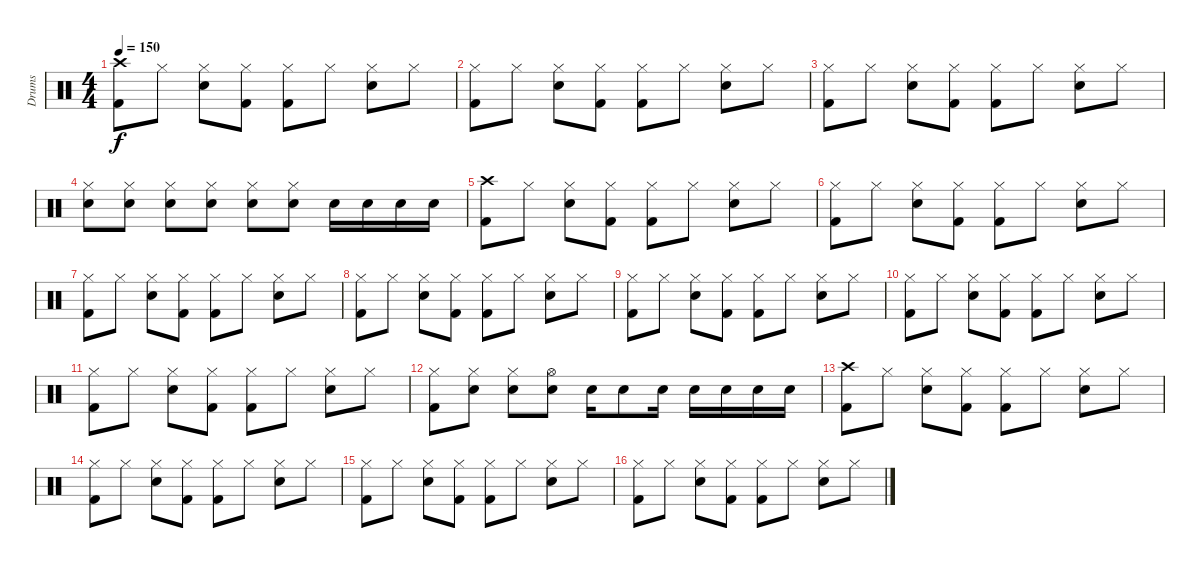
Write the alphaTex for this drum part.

\track ("Drums" "Drums") {instrument percussion}
\staff {score}
\articulation defaults
\ts (4 4)
\tempo 150
\clef neutral
\ks c
("Crash high (hit)" "Kick (hit) 2").8{dy f} "Hi-Hat (closed)".8 ("Hi-Hat (closed)" "Snare (hit) 2").8 ("Hi-Hat (closed)" "Kick (hit) 2").8 ("Hi-Hat (closed)" "Kick (hit) 2").8 "Hi-Hat (closed)".8 ("Hi-Hat (closed)" "Snare (hit) 2").8 "Hi-Hat (closed)".8 |
("Hi-Hat (closed)" "Kick (hit) 2").8 "Hi-Hat (closed)".8 ("Hi-Hat (closed)" "Snare (hit) 2").8 ("Hi-Hat (closed)" "Kick (hit) 2").8 ("Hi-Hat (closed)" "Kick (hit) 2").8 "Hi-Hat (closed)".8 ("Hi-Hat (closed)" "Snare (hit) 2").8 "Hi-Hat (closed)".8 |
("Hi-Hat (closed)" "Kick (hit) 2").8 "Hi-Hat (closed)".8 ("Hi-Hat (closed)" "Snare (hit) 2").8 ("Hi-Hat (closed)" "Kick (hit) 2").8 ("Hi-Hat (closed)" "Kick (hit) 2").8 "Hi-Hat (closed)".8 ("Hi-Hat (closed)" "Snare (hit) 2").8 "Hi-Hat (closed)".8 |
("Hi-Hat (closed)" "Snare (hit) 2").8 ("Hi-Hat (closed)" "Snare (hit) 2").8 ("Hi-Hat (closed)" "Snare (hit) 2").8 ("Hi-Hat (closed)" "Snare (hit) 2").8 ("Hi-Hat (closed)" "Snare (hit) 2").8 ("Hi-Hat (closed)" "Snare (hit) 2").8 "Snare (hit) 2".16 "Snare (hit) 2".16 "Snare (hit) 2".16 "Snare (hit) 2".16 |
("Crash high (hit)" "Kick (hit) 2").8 "Hi-Hat (closed)".8 ("Hi-Hat (closed)" "Snare (hit) 2").8 ("Hi-Hat (closed)" "Kick (hit) 2").8 ("Hi-Hat (closed)" "Kick (hit) 2").8 "Hi-Hat (closed)".8 ("Hi-Hat (closed)" "Snare (hit) 2").8 "Hi-Hat (closed)".8 |
("Hi-Hat (closed)" "Kick (hit) 2").8 "Hi-Hat (closed)".8 ("Hi-Hat (closed)" "Snare (hit) 2").8 ("Hi-Hat (closed)" "Kick (hit) 2").8 ("Hi-Hat (closed)" "Kick (hit) 2").8 "Hi-Hat (closed)".8 ("Hi-Hat (closed)" "Snare (hit) 2").8 "Hi-Hat (closed)".8 |
("Hi-Hat (closed)" "Kick (hit) 2").8 "Hi-Hat (closed)".8 ("Hi-Hat (closed)" "Snare (hit) 2").8 ("Hi-Hat (closed)" "Kick (hit) 2").8 ("Hi-Hat (closed)" "Kick (hit) 2").8 "Hi-Hat (closed)".8 ("Hi-Hat (closed)" "Snare (hit) 2").8 "Hi-Hat (closed)".8 |
("Hi-Hat (closed)" "Kick (hit) 2").8 "Hi-Hat (closed)".8 ("Hi-Hat (closed)" "Snare (hit) 2").8 ("Hi-Hat (closed)" "Kick (hit) 2").8 ("Hi-Hat (closed)" "Kick (hit) 2").8 "Hi-Hat (closed)".8 ("Hi-Hat (closed)" "Snare (hit) 2").8 "Hi-Hat (closed)".8 |
("Hi-Hat (closed)" "Kick (hit) 2").8 "Hi-Hat (closed)".8 ("Hi-Hat (closed)" "Snare (hit) 2").8 ("Hi-Hat (closed)" "Kick (hit) 2").8 ("Hi-Hat (closed)" "Kick (hit) 2").8 "Hi-Hat (closed)".8 ("Hi-Hat (closed)" "Snare (hit) 2").8 "Hi-Hat (closed)".8 |
("Hi-Hat (closed)" "Kick (hit) 2").8 "Hi-Hat (closed)".8 ("Hi-Hat (closed)" "Snare (hit) 2").8 ("Hi-Hat (closed)" "Kick (hit) 2").8 ("Hi-Hat (closed)" "Kick (hit) 2").8 "Hi-Hat (closed)".8 ("Hi-Hat (closed)" "Snare (hit) 2").8 "Hi-Hat (closed)".8 |
("Hi-Hat (closed)" "Kick (hit) 2").8 "Hi-Hat (closed)".8 ("Hi-Hat (closed)" "Snare (hit) 2").8 ("Hi-Hat (closed)" "Kick (hit) 2").8 ("Hi-Hat (closed)" "Kick (hit) 2").8 "Hi-Hat (closed)".8 ("Hi-Hat (closed)" "Snare (hit) 2").8 "Hi-Hat (closed)".8 |
("Hi-Hat (closed)" "Kick (hit) 2").8 ("Hi-Hat (closed)" "Snare (hit) 2").8 ("Hi-Hat (closed)" "Snare (hit) 2").8 ("Hi-Hat (open)" "Snare (hit) 2").8 "Snare (hit) 2".16 "Snare (hit) 2".8 "Snare (hit) 2".16 "Snare (hit) 2".16 "Snare (hit) 2".16 "Snare (hit) 2".16 "Snare (hit) 2".16 |
("Crash high (hit)" "Kick (hit) 2").8 "Hi-Hat (closed)".8 ("Hi-Hat (closed)" "Snare (hit) 2").8 ("Hi-Hat (closed)" "Kick (hit) 2").8 ("Hi-Hat (closed)" "Kick (hit) 2").8 "Hi-Hat (closed)".8 ("Hi-Hat (closed)" "Snare (hit) 2").8 "Hi-Hat (closed)".8 |
("Hi-Hat (closed)" "Kick (hit) 2").8 "Hi-Hat (closed)".8 ("Hi-Hat (closed)" "Snare (hit) 2").8 ("Hi-Hat (closed)" "Kick (hit) 2").8 ("Hi-Hat (closed)" "Kick (hit) 2").8 "Hi-Hat (closed)".8 ("Hi-Hat (closed)" "Snare (hit) 2").8 "Hi-Hat (closed)".8 |
("Hi-Hat (closed)" "Kick (hit) 2").8 "Hi-Hat (closed)".8 ("Hi-Hat (closed)" "Snare (hit) 2").8 ("Hi-Hat (closed)" "Kick (hit) 2").8 ("Hi-Hat (closed)" "Kick (hit) 2").8 "Hi-Hat (closed)".8 ("Hi-Hat (closed)" "Snare (hit) 2").8 "Hi-Hat (closed)".8 |
("Hi-Hat (closed)" "Kick (hit) 2").8 "Hi-Hat (closed)".8 ("Hi-Hat (closed)" "Snare (hit) 2").8 ("Hi-Hat (closed)" "Kick (hit) 2").8 ("Hi-Hat (closed)" "Kick (hit) 2").8 "Hi-Hat (closed)".8 ("Hi-Hat (closed)" "Snare (hit) 2").8 "Hi-Hat (closed)".8
